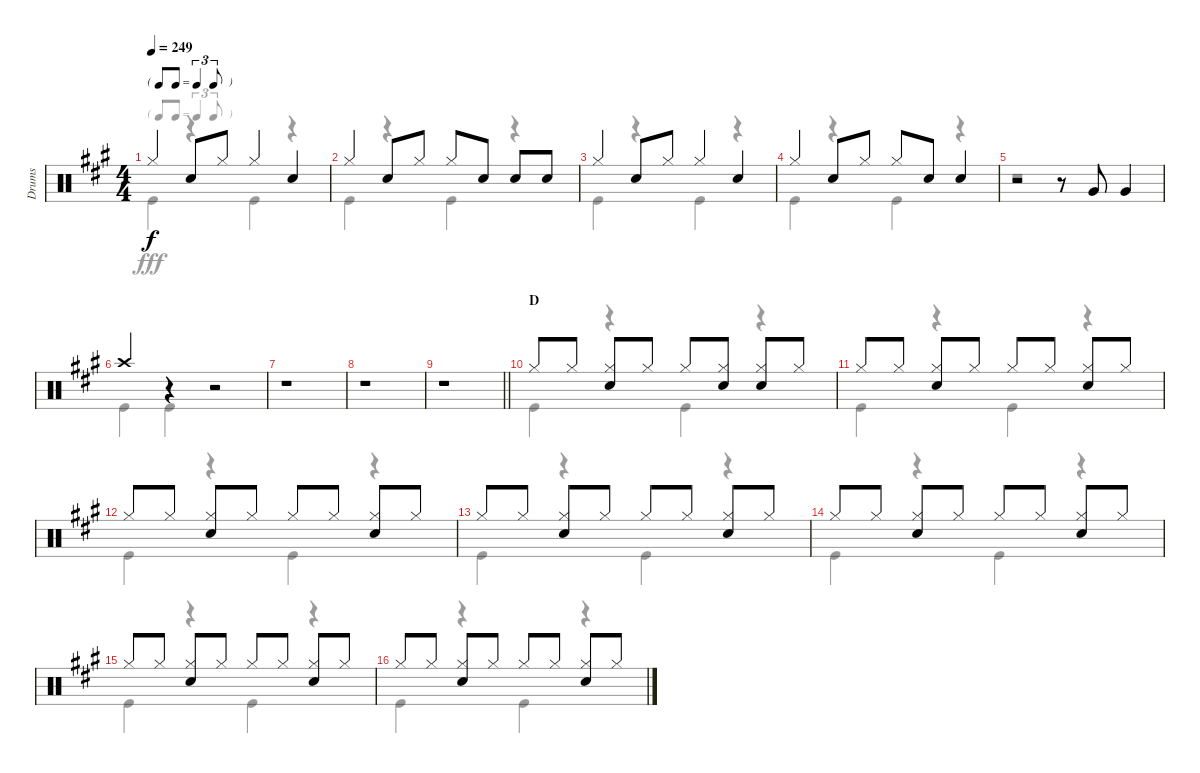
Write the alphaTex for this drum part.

\track ("Drums" "Drums") {instrument percussion}
\staff {score}
\articulation defaults
\voice
\ts (4 4)
\tf triplet8th
\tempo 249
\clef neutral
\ks a "Hi-Hat (closed)".4{dy f} "Snare (hit) 2".8 "Hi-Hat (closed)".8 "Hi-Hat (closed)".4 "Snare (hit) 2".4
|
"Hi-Hat (closed)".4 "Snare (hit) 2".8 "Hi-Hat (closed)".8 "Hi-Hat (closed)".8 "Snare (hit) 2".8 "Snare (hit) 2".8 "Snare (hit) 2".8 |
"Hi-Hat (closed)".4 "Snare (hit) 2".8 "Hi-Hat (closed)".8 "Hi-Hat (closed)".4 "Snare (hit) 2".4 |
"Hi-Hat (closed)".4 "Snare (hit) 2".8 "Hi-Hat (closed)".8 "Hi-Hat (closed)".8 "Snare (hit) 2".8 "Snare (hit) 2".4 |
r.2 r.8 "Very Low Tom (hit)".8 "Very Low Tom (hit)".4 |
"Crash high (hit)".4 r.4 r.2 |
r.1 |
r.1 |
\barLineRight lightlight
r.1 |
\section ("" "D")
"Hi-Hat (closed)".8 "Hi-Hat (closed)".8 ("Hi-Hat (closed)" "Snare (hit) 2").8 "Hi-Hat (closed)".8 "Hi-Hat (closed)".8 ("Hi-Hat (closed)" "Snare (hit) 2").8 ("Hi-Hat (closed)" "Snare (hit) 2").8 "Hi-Hat (closed)".8 |
"Hi-Hat (closed)".8 "Hi-Hat (closed)".8 ("Hi-Hat (closed)" "Snare (hit) 2").8 "Hi-Hat (closed)".8 "Hi-Hat (closed)".8 "Hi-Hat (closed)".8 ("Hi-Hat (closed)" "Snare (hit) 2").8 "Hi-Hat (closed)".8 |
"Hi-Hat (closed)".8 "Hi-Hat (closed)".8 ("Hi-Hat (closed)" "Snare (hit) 2").8 "Hi-Hat (closed)".8 "Hi-Hat (closed)".8 "Hi-Hat (closed)".8 ("Hi-Hat (closed)" "Snare (hit) 2").8 "Hi-Hat (closed)".8 |
"Hi-Hat (closed)".8 "Hi-Hat (closed)".8 ("Hi-Hat (closed)" "Snare (hit) 2").8 "Hi-Hat (closed)".8 "Hi-Hat (closed)".8 "Hi-Hat (closed)".8 ("Hi-Hat (closed)" "Snare (hit) 2").8 "Hi-Hat (closed)".8 |
"Hi-Hat (closed)".8 "Hi-Hat (closed)".8 ("Hi-Hat (closed)" "Snare (hit) 2").8 "Hi-Hat (closed)".8 "Hi-Hat (closed)".8 "Hi-Hat (closed)".8 ("Hi-Hat (closed)" "Snare (hit) 2").8 "Hi-Hat (closed)".8 |
"Hi-Hat (closed)".8 "Hi-Hat (closed)".8 ("Hi-Hat (closed)" "Snare (hit) 2").8 "Hi-Hat (closed)".8 "Hi-Hat (closed)".8 "Hi-Hat (closed)".8 ("Hi-Hat (closed)" "Snare (hit) 2").8 "Hi-Hat (closed)".8 |
"Hi-Hat (closed)".8 "Hi-Hat (closed)".8 ("Hi-Hat (closed)" "Snare (hit) 2").8 "Hi-Hat (closed)".8 "Hi-Hat (closed)".8 "Hi-Hat (closed)".8 ("Hi-Hat (closed)" "Snare (hit) 2").8 "Hi-Hat (closed)".8
\voice
\clef neutral
\ottava regular
\simile none
\ks a "Kick (hit)".4{dy fff}
r.4 "Kick (hit)".4 r.4 |
"Kick (hit)".4 r.4 "Kick (hit)".4 r.4 |
"Kick (hit)".4 r.4 "Kick (hit)".4 r.4 |
"Kick (hit)".4 r.4 "Kick (hit)".4 r.4 |
r.1 |
"Kick (hit)".4 "Kick (hit)".4 r.2 |
r.1 |
r.1 |
\barLineRight lightlight
r.1 |
"Kick (hit)".4 r.4 "Kick (hit)".4 r.4 |
"Kick (hit)".4 r.4 "Kick (hit)".4 r.4 |
"Kick (hit)".4 r.4 "Kick (hit)".4 r.4 |
"Kick (hit)".4 r.4 "Kick (hit)".4 r.4 |
"Kick (hit)".4 r.4 "Kick (hit)".4 r.4 |
"Kick (hit)".4 r.4 "Kick (hit)".4 r.4 |
"Kick (hit)".4 r.4 "Kick (hit)".4 r.4
